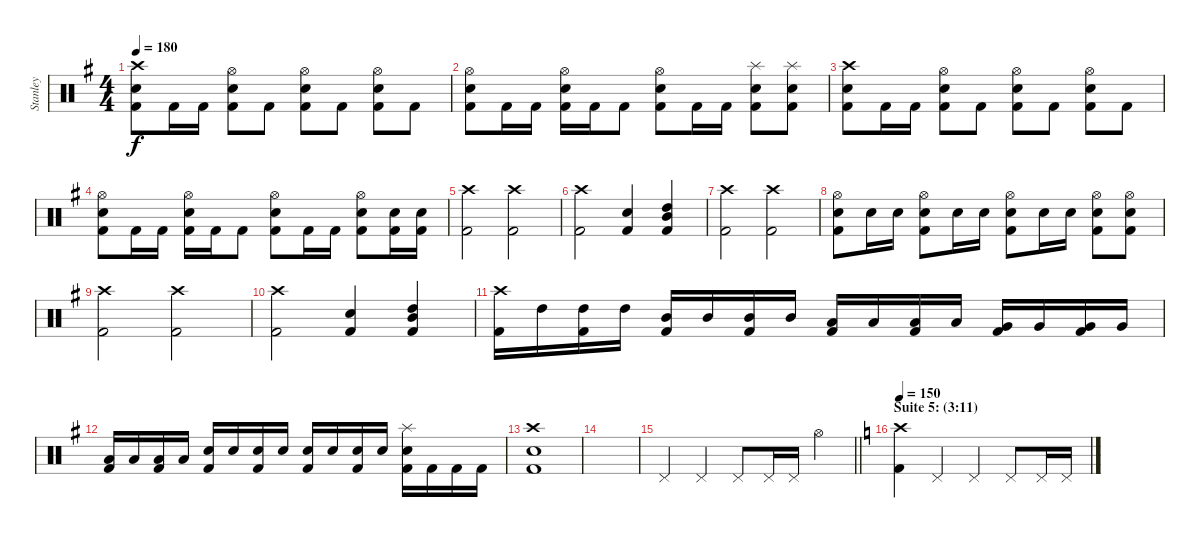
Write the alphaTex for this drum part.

\track ("Stanley" "Stanley") {instrument percussion}
\staff {score}
\articulation defaults
\ts (4 4)
\tempo 180
\clef neutral
\ks g
("Crash high (hit)" "Electric Snare (hit)" "Kick (hit) 2").8{dy f} "Kick (hit) 2".16 "Kick (hit) 2".16 ("Hi-Hat (open)" "Electric Snare (hit)" "Kick (hit) 2").8 "Kick (hit) 2".8 ("Hi-Hat (open)" "Electric Snare (hit)" "Kick (hit) 2").8 "Kick (hit) 2".8 ("Hi-Hat (open)" "Electric Snare (hit)" "Kick (hit) 2").8 "Kick (hit) 2".8 |
("Hi-Hat (open)" "Electric Snare (hit)" "Kick (hit) 2").8 "Kick (hit) 2".16 "Kick (hit) 2".16 ("Hi-Hat (open)" "Electric Snare (hit)" "Kick (hit) 2").16 "Kick (hit) 2".16 "Kick (hit) 2".8 ("Hi-Hat (open)" "Electric Snare (hit)" "Kick (hit) 2").8 "Kick (hit) 2".16 "Kick (hit) 2".16 ("Splash (hit)" "Electric Snare (hit)" "Kick (hit) 2").8 ("Splash (hit)" "Electric Snare (hit)" "Kick (hit) 2").8 |
("Crash high (hit)" "Electric Snare (hit)" "Kick (hit) 2").8 "Kick (hit) 2".16 "Kick (hit) 2".16 ("Hi-Hat (open)" "Electric Snare (hit)" "Kick (hit) 2").8 "Kick (hit) 2".8 ("Hi-Hat (open)" "Electric Snare (hit)" "Kick (hit) 2").8 "Kick (hit) 2".8 ("Hi-Hat (open)" "Electric Snare (hit)" "Kick (hit) 2").8 "Kick (hit) 2".8 |
("Hi-Hat (open)" "Electric Snare (hit)" "Kick (hit) 2").8 "Kick (hit) 2".16 "Kick (hit) 2".16 ("Hi-Hat (open)" "Electric Snare (hit)" "Kick (hit) 2").16 "Kick (hit) 2".16 "Kick (hit) 2".8 ("Hi-Hat (open)" "Electric Snare (hit)" "Kick (hit) 2").8 "Kick (hit) 2".16 "Kick (hit) 2".16 ("Hi-Hat (open)" "Electric Snare (hit)" "Kick (hit) 2").8 ("Electric Snare (hit)" "Kick (hit) 2").16 ("Electric Snare (hit)" "Kick (hit) 2").16 |
("Crash high (hit)" "Kick (hit) 2").2 ("Crash high (hit)" "Kick (hit) 2").2 |
("Crash high (hit)" "Kick (hit) 2").2 ("Electric Snare (hit)" "Kick (hit) 2").4 ("High Tom (hit)" "Mid Tom (hit)" "Kick (hit) 2").4 |
("Crash high (hit)" "Kick (hit) 2").2 ("Crash high (hit)" "Kick (hit) 2").2 |
("Hi-Hat (open)" "Electric Snare (hit)" "Kick (hit) 2").8 "Electric Snare (hit)".16 "Electric Snare (hit)".16 ("Hi-Hat (open)" "Electric Snare (hit)" "Kick (hit) 2").8 "Electric Snare (hit)".16 "Electric Snare (hit)".16 ("Hi-Hat (open)" "Electric Snare (hit)" "Kick (hit) 2").8 "Electric Snare (hit)".16 "Electric Snare (hit)".16 ("Hi-Hat (open)" "Electric Snare (hit)" "Kick (hit) 2").8 ("Hi-Hat (open)" "Electric Snare (hit)" "Kick (hit) 2").8 |
("Crash high (hit)" "Kick (hit) 2").2 ("Crash high (hit)" "Kick (hit) 2").2 |
("Crash high (hit)" "Kick (hit) 2").2 ("Electric Snare (hit)" "Kick (hit) 2").4 ("High Tom (hit)" "Mid Tom (hit)" "Kick (hit) 2").4 |
("Crash high (hit)" "Kick (hit) 2").16 "High Tom (hit)".16 ("High Tom (hit)" "Kick (hit) 2").16 "High Tom (hit)".16 ("Mid Tom (hit)" "Kick (hit) 2").16 "Mid Tom (hit)".16 ("Mid Tom (hit)" "Kick (hit) 2").16 "Mid Tom (hit)".16 ("Low Tom (hit)" "Kick (hit) 2").16 "Low Tom (hit)".16 ("Low Tom (hit)" "Kick (hit) 2").16 "Low Tom (hit)".16 ("Very Low Tom (hit)" "Kick (hit) 2").16 "Very Low Tom (hit)".16 ("Very Low Tom (hit)" "Kick (hit) 2").16 "Very Low Tom (hit)".16 |
("Low Floor Tom (hit)" "Kick (hit) 2").16 "Low Floor Tom (hit)".16 ("Low Floor Tom (hit)" "Kick (hit) 2").16 "Low Floor Tom (hit)".16 ("Electric Snare (hit)" "Kick (hit) 2").16 "Electric Snare (hit)".16 ("Electric Snare (hit)" "Kick (hit) 2").16 "Electric Snare (hit)".16 ("Electric Snare (hit)" "Kick (hit) 2").16 "Electric Snare (hit)".16 ("Electric Snare (hit)" "Kick (hit) 2").16 "Electric Snare (hit)".16 ("Splash (hit)" "Electric Snare (hit)" "Kick (hit) 2").16 "Kick (hit) 2".16 "Kick (hit) 2".16 "Kick (hit) 2".16 |
("Crash high (hit)" "Electric Snare (hit)" "Kick (hit) 2").1 |
|
\barLineRight lightlight "Pedal Hi-Hat (hit)".4 "Pedal Hi-Hat (hit)".4 "Pedal Hi-Hat (hit)".8 "Pedal Hi-Hat (hit)".16 "Pedal Hi-Hat (hit)".16 "Hi-Hat (open)".4
|
\section ("" "Suite 5: (3:11)")
\tempo 150
\ks c
("Crash high (hit)" "Kick (hit) 2").4 "Pedal Hi-Hat (hit)".4 "Pedal Hi-Hat (hit)".4 "Pedal Hi-Hat (hit)".8 "Pedal Hi-Hat (hit)".16 "Pedal Hi-Hat (hit)".16
